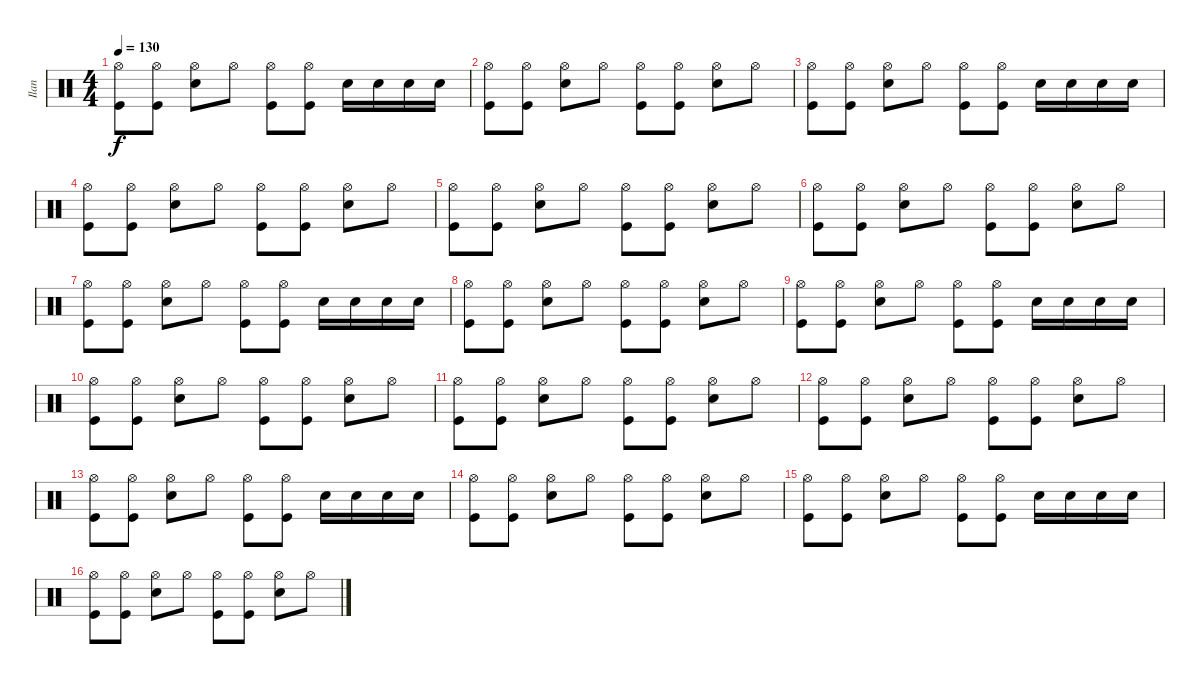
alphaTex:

\track ("Ilan" "Ilan") {instrument percussion}
\staff {score}
\articulation defaults
\ts (4 4)
\tempo 130
\clef neutral
\ks c
("Hi-Hat (open)" "Kick (hit)").8{dy f} ("Hi-Hat (open)" "Kick (hit)").8 ("Hi-Hat (open)" "Electric Snare (hit)").8 "Hi-Hat (open)".8 ("Hi-Hat (open)" "Kick (hit)").8 ("Hi-Hat (open)" "Kick (hit)").8 "Electric Snare (hit)".16 "Electric Snare (hit)".16 "Electric Snare (hit)".16 "Electric Snare (hit)".16 |
("Hi-Hat (open)" "Kick (hit)").8 ("Hi-Hat (open)" "Kick (hit)").8 ("Hi-Hat (open)" "Electric Snare (hit)").8 "Hi-Hat (open)".8 ("Hi-Hat (open)" "Kick (hit)").8 ("Hi-Hat (open)" "Kick (hit)").8 ("Hi-Hat (open)" "Electric Snare (hit)").8 "Hi-Hat (open)".8 |
("Hi-Hat (open)" "Kick (hit)").8 ("Hi-Hat (open)" "Kick (hit)").8 ("Hi-Hat (open)" "Electric Snare (hit)").8 "Hi-Hat (open)".8 ("Hi-Hat (open)" "Kick (hit)").8 ("Hi-Hat (open)" "Kick (hit)").8 "Electric Snare (hit)".16 "Electric Snare (hit)".16 "Electric Snare (hit)".16 "Electric Snare (hit)".16 |
("Hi-Hat (open)" "Kick (hit)").8 ("Hi-Hat (open)" "Kick (hit)").8 ("Hi-Hat (open)" "Electric Snare (hit)").8 "Hi-Hat (open)".8 ("Hi-Hat (open)" "Kick (hit)").8 ("Hi-Hat (open)" "Kick (hit)").8 ("Hi-Hat (open)" "Electric Snare (hit)").8 "Hi-Hat (open)".8 |
("Hi-Hat (open)" "Kick (hit)").8 ("Hi-Hat (open)" "Kick (hit)").8 ("Hi-Hat (open)" "Electric Snare (hit)").8 "Hi-Hat (open)".8 ("Hi-Hat (open)" "Kick (hit)").8 ("Hi-Hat (open)" "Kick (hit)").8 ("Hi-Hat (open)" "Electric Snare (hit)").8 "Hi-Hat (open)".8 |
("Hi-Hat (open)" "Kick (hit)").8 ("Hi-Hat (open)" "Kick (hit)").8 ("Hi-Hat (open)" "Electric Snare (hit)").8 "Hi-Hat (open)".8 ("Hi-Hat (open)" "Kick (hit)").8 ("Hi-Hat (open)" "Kick (hit)").8 ("Hi-Hat (open)" "Electric Snare (hit)").8 "Hi-Hat (open)".8 |
("Hi-Hat (open)" "Kick (hit)").8 ("Hi-Hat (open)" "Kick (hit)").8 ("Hi-Hat (open)" "Electric Snare (hit)").8 "Hi-Hat (open)".8 ("Hi-Hat (open)" "Kick (hit)").8 ("Hi-Hat (open)" "Kick (hit)").8 "Electric Snare (hit)".16 "Electric Snare (hit)".16 "Electric Snare (hit)".16 "Electric Snare (hit)".16 |
("Hi-Hat (open)" "Kick (hit)").8 ("Hi-Hat (open)" "Kick (hit)").8 ("Hi-Hat (open)" "Electric Snare (hit)").8 "Hi-Hat (open)".8 ("Hi-Hat (open)" "Kick (hit)").8 ("Hi-Hat (open)" "Kick (hit)").8 ("Hi-Hat (open)" "Electric Snare (hit)").8 "Hi-Hat (open)".8 |
("Hi-Hat (open)" "Kick (hit)").8 ("Hi-Hat (open)" "Kick (hit)").8 ("Hi-Hat (open)" "Electric Snare (hit)").8 "Hi-Hat (open)".8 ("Hi-Hat (open)" "Kick (hit)").8 ("Hi-Hat (open)" "Kick (hit)").8 "Electric Snare (hit)".16 "Electric Snare (hit)".16 "Electric Snare (hit)".16 "Electric Snare (hit)".16 |
("Hi-Hat (open)" "Kick (hit)").8 ("Hi-Hat (open)" "Kick (hit)").8 ("Hi-Hat (open)" "Electric Snare (hit)").8 "Hi-Hat (open)".8 ("Hi-Hat (open)" "Kick (hit)").8 ("Hi-Hat (open)" "Kick (hit)").8 ("Hi-Hat (open)" "Electric Snare (hit)").8 "Hi-Hat (open)".8 |
("Hi-Hat (open)" "Kick (hit)").8 ("Hi-Hat (open)" "Kick (hit)").8 ("Hi-Hat (open)" "Electric Snare (hit)").8 "Hi-Hat (open)".8 ("Hi-Hat (open)" "Kick (hit)").8 ("Hi-Hat (open)" "Kick (hit)").8 ("Hi-Hat (open)" "Electric Snare (hit)").8 "Hi-Hat (open)".8 |
("Hi-Hat (open)" "Kick (hit)").8 ("Hi-Hat (open)" "Kick (hit)").8 ("Hi-Hat (open)" "Electric Snare (hit)").8 "Hi-Hat (open)".8 ("Hi-Hat (open)" "Kick (hit)").8 ("Hi-Hat (open)" "Kick (hit)").8 ("Hi-Hat (open)" "Electric Snare (hit)").8 "Hi-Hat (open)".8 |
("Hi-Hat (open)" "Kick (hit)").8 ("Hi-Hat (open)" "Kick (hit)").8 ("Hi-Hat (open)" "Electric Snare (hit)").8 "Hi-Hat (open)".8 ("Hi-Hat (open)" "Kick (hit)").8 ("Hi-Hat (open)" "Kick (hit)").8 "Electric Snare (hit)".16 "Electric Snare (hit)".16 "Electric Snare (hit)".16 "Electric Snare (hit)".16 |
("Hi-Hat (open)" "Kick (hit)").8 ("Hi-Hat (open)" "Kick (hit)").8 ("Hi-Hat (open)" "Electric Snare (hit)").8 "Hi-Hat (open)".8 ("Hi-Hat (open)" "Kick (hit)").8 ("Hi-Hat (open)" "Kick (hit)").8 ("Hi-Hat (open)" "Electric Snare (hit)").8 "Hi-Hat (open)".8 |
("Hi-Hat (open)" "Kick (hit)").8 ("Hi-Hat (open)" "Kick (hit)").8 ("Hi-Hat (open)" "Electric Snare (hit)").8 "Hi-Hat (open)".8 ("Hi-Hat (open)" "Kick (hit)").8 ("Hi-Hat (open)" "Kick (hit)").8 "Electric Snare (hit)".16 "Electric Snare (hit)".16 "Electric Snare (hit)".16 "Electric Snare (hit)".16 |
("Hi-Hat (open)" "Kick (hit)").8 ("Hi-Hat (open)" "Kick (hit)").8 ("Hi-Hat (open)" "Electric Snare (hit)").8 "Hi-Hat (open)".8 ("Hi-Hat (open)" "Kick (hit)").8 ("Hi-Hat (open)" "Kick (hit)").8 ("Hi-Hat (open)" "Electric Snare (hit)").8 "Hi-Hat (open)".8
